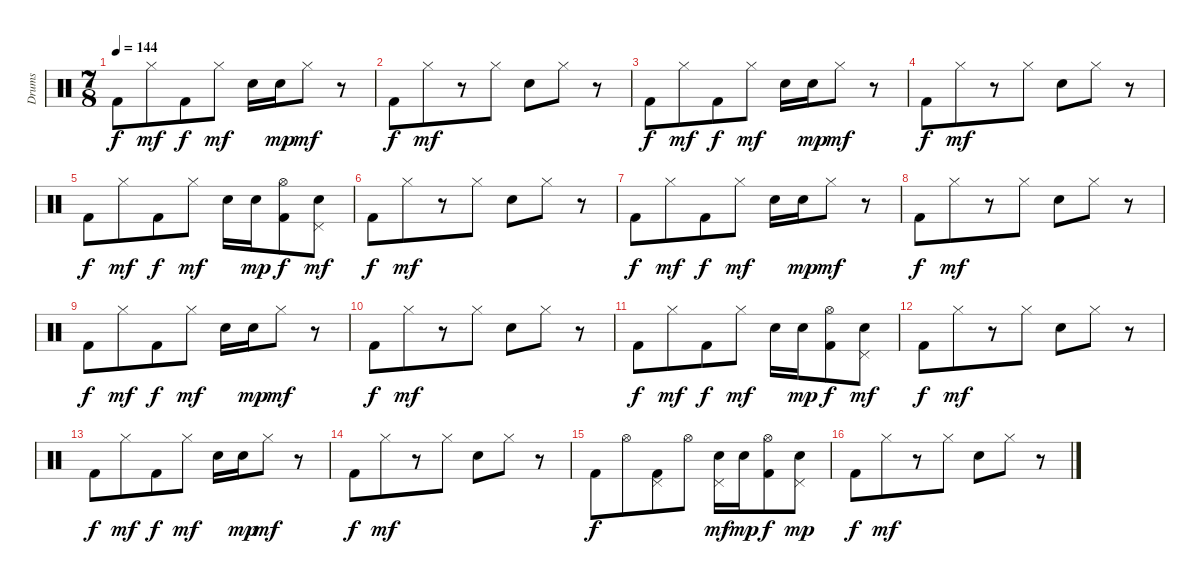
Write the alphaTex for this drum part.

\track ("Drums" "Drums") {instrument percussion}
\staff {score}
\articulation defaults
\ts (7 8)
\tempo 144
\clef neutral
\ks c "Kick (hit) 2".8{dy f} "Hi-Hat (closed)".8{dy mf} "Kick (hit) 2".8{dy f} "Hi-Hat (closed)".8{dy mf} "Snare (hit) 2".16 "Snare (hit) 2".16{dy mp} "Hi-Hat (closed)".8{dy mf}
r.8 |
"Kick (hit) 2".8{dy f} "Hi-Hat (closed)".8{dy mf} r.8 "Hi-Hat (closed)".8 "Snare (hit) 2".8 "Hi-Hat (closed)".8 r.8 |
"Kick (hit) 2".8{dy f} "Hi-Hat (closed)".8{dy mf} "Kick (hit) 2".8{dy f} "Hi-Hat (closed)".8{dy mf} "Snare (hit) 2".16 "Snare (hit) 2".16{dy mp} "Hi-Hat (closed)".8{dy mf} r.8 |
"Kick (hit) 2".8{dy f} "Hi-Hat (closed)".8{dy mf} r.8 "Hi-Hat (closed)".8 "Snare (hit) 2".8 "Hi-Hat (closed)".8 r.8 |
"Kick (hit) 2".8{dy f} "Hi-Hat (closed)".8{dy mf} "Kick (hit) 2".8{dy f} "Hi-Hat (closed)".8{dy mf} "Snare (hit) 2".16 "Snare (hit) 2".16{dy mp} ("Hi-Hat (open)" "Kick (hit) 2").8{dy f} ("Pedal Hi-Hat (hit)" "Snare (hit) 2").8{dy mf} |
"Kick (hit) 2".8{dy f} "Hi-Hat (closed)".8{dy mf} r.8 "Hi-Hat (closed)".8 "Snare (hit) 2".8 "Hi-Hat (closed)".8 r.8 |
"Kick (hit) 2".8{dy f} "Hi-Hat (closed)".8{dy mf} "Kick (hit) 2".8{dy f} "Hi-Hat (closed)".8{dy mf} "Snare (hit) 2".16 "Snare (hit) 2".16{dy mp} "Hi-Hat (closed)".8{dy mf} r.8 |
"Kick (hit) 2".8{dy f} "Hi-Hat (closed)".8{dy mf} r.8 "Hi-Hat (closed)".8 "Snare (hit) 2".8 "Hi-Hat (closed)".8 r.8 |
"Kick (hit) 2".8{dy f} "Hi-Hat (closed)".8{dy mf} "Kick (hit) 2".8{dy f} "Hi-Hat (closed)".8{dy mf} "Snare (hit) 2".16 "Snare (hit) 2".16{dy mp} "Hi-Hat (closed)".8{dy mf} r.8 |
"Kick (hit) 2".8{dy f} "Hi-Hat (closed)".8{dy mf} r.8 "Hi-Hat (closed)".8 "Snare (hit) 2".8 "Hi-Hat (closed)".8 r.8 |
"Kick (hit) 2".8{dy f} "Hi-Hat (closed)".8{dy mf} "Kick (hit) 2".8{dy f} "Hi-Hat (closed)".8{dy mf} "Snare (hit) 2".16 "Snare (hit) 2".16{dy mp} ("Hi-Hat (open)" "Kick (hit) 2").8{dy f} ("Pedal Hi-Hat (hit)" "Snare (hit) 2").8{dy mf} |
"Kick (hit) 2".8{dy f} "Hi-Hat (closed)".8{dy mf} r.8 "Hi-Hat (closed)".8 "Snare (hit) 2".8 "Hi-Hat (closed)".8 r.8 |
"Kick (hit) 2".8{dy f} "Hi-Hat (closed)".8{dy mf} "Kick (hit) 2".8{dy f} "Hi-Hat (closed)".8{dy mf} "Snare (hit) 2".16 "Snare (hit) 2".16{dy mp} "Hi-Hat (closed)".8{dy mf} r.8 |
"Kick (hit) 2".8{dy f} "Hi-Hat (closed)".8{dy mf} r.8 "Hi-Hat (closed)".8 "Snare (hit) 2".8 "Hi-Hat (closed)".8 r.8 |
"Kick (hit) 2".8{dy f} "Hi-Hat (open)".8 ("Pedal Hi-Hat (hit)" "Kick (hit) 2").8 "Hi-Hat (open)".8 ("Pedal Hi-Hat (hit)" "Snare (hit) 2").16{dy mf} "Snare (hit) 2".16{dy mp} ("Hi-Hat (open)" "Kick (hit) 2").8{dy f} ("Pedal Hi-Hat (hit)" "Snare (hit) 2").8{dy mp} |
"Kick (hit) 2".8{dy f} "Hi-Hat (closed)".8{dy mf} r.8 "Hi-Hat (closed)".8 "Snare (hit) 2".8 "Hi-Hat (closed)".8 r.8
